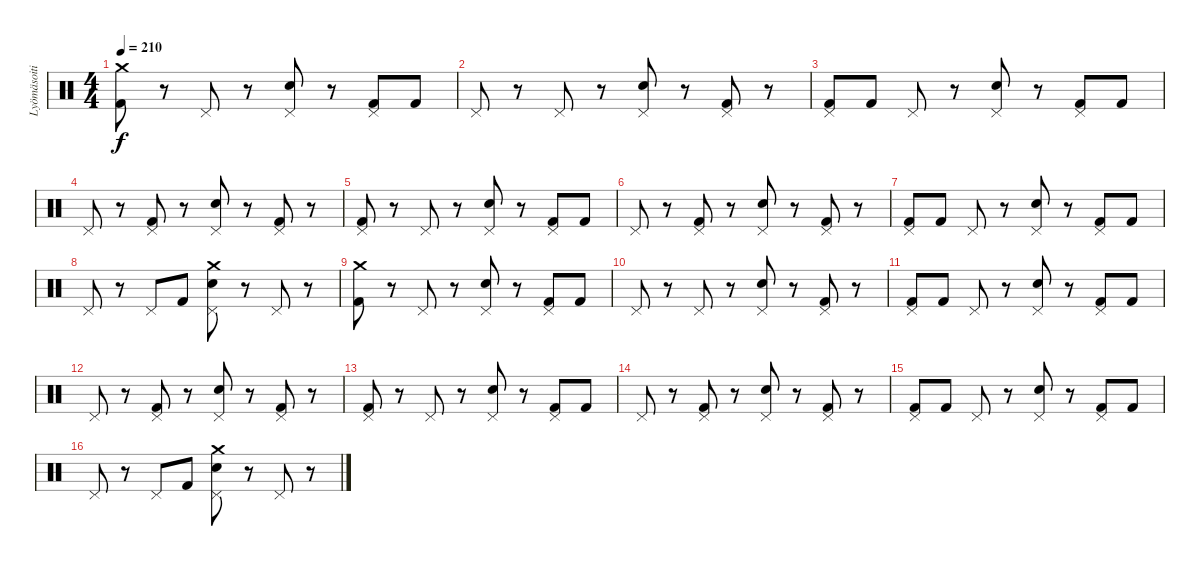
\track ("Lyömäsoitin" "Lyömäsoiti") {instrument percussion}
\staff {score}
\articulation defaults
\ts (4 4)
\tempo 210
\clef neutral
\ks c
("Crash medium (hit)" "Kick (hit) 2").8{dy f} r.8 "Pedal Hi-Hat (hit)".8 r.8 ("Pedal Hi-Hat (hit)" "Electric Snare (hit)").8 r.8 ("Pedal Hi-Hat (hit)" "Kick (hit) 2").8 "Kick (hit) 2".8 |
"Pedal Hi-Hat (hit)".8 r.8 "Pedal Hi-Hat (hit)".8 r.8 ("Pedal Hi-Hat (hit)" "Electric Snare (hit)").8 r.8 ("Pedal Hi-Hat (hit)" "Kick (hit) 2").8 r.8 |
("Pedal Hi-Hat (hit)" "Kick (hit) 2").8 "Kick (hit) 2".8 "Pedal Hi-Hat (hit)".8 r.8 ("Pedal Hi-Hat (hit)" "Electric Snare (hit)").8 r.8 ("Pedal Hi-Hat (hit)" "Kick (hit) 2").8 "Kick (hit) 2".8 |
"Pedal Hi-Hat (hit)".8 r.8 ("Pedal Hi-Hat (hit)" "Kick (hit) 2").8 r.8 ("Pedal Hi-Hat (hit)" "Electric Snare (hit)").8 r.8 ("Pedal Hi-Hat (hit)" "Kick (hit) 2").8 r.8 |
("Pedal Hi-Hat (hit)" "Kick (hit) 2").8 r.8 "Pedal Hi-Hat (hit)".8 r.8 ("Pedal Hi-Hat (hit)" "Electric Snare (hit)").8 r.8 ("Pedal Hi-Hat (hit)" "Kick (hit) 2").8 "Kick (hit) 2".8 |
"Pedal Hi-Hat (hit)".8 r.8 ("Pedal Hi-Hat (hit)" "Kick (hit) 2").8 r.8 ("Pedal Hi-Hat (hit)" "Electric Snare (hit)").8 r.8 ("Pedal Hi-Hat (hit)" "Kick (hit) 2").8 r.8 |
("Pedal Hi-Hat (hit)" "Kick (hit) 2").8 "Kick (hit) 2".8 "Pedal Hi-Hat (hit)".8 r.8 ("Pedal Hi-Hat (hit)" "Electric Snare (hit)").8 r.8 ("Pedal Hi-Hat (hit)" "Kick (hit) 2").8 "Kick (hit) 2".8 |
"Pedal Hi-Hat (hit)".8 r.8 "Pedal Hi-Hat (hit)".8 "Kick (hit) 2".8 ("Crash medium (hit)" "Pedal Hi-Hat (hit)" "Electric Snare (hit)").8 r.8 "Pedal Hi-Hat (hit)".8 r.8 |
("Crash medium (hit)" "Kick (hit) 2").8 r.8 "Pedal Hi-Hat (hit)".8 r.8 ("Pedal Hi-Hat (hit)" "Electric Snare (hit)").8 r.8 ("Pedal Hi-Hat (hit)" "Kick (hit) 2").8 "Kick (hit) 2".8 |
"Pedal Hi-Hat (hit)".8 r.8 "Pedal Hi-Hat (hit)".8 r.8 ("Pedal Hi-Hat (hit)" "Electric Snare (hit)").8 r.8 ("Pedal Hi-Hat (hit)" "Kick (hit) 2").8 r.8 |
("Pedal Hi-Hat (hit)" "Kick (hit) 2").8 "Kick (hit) 2".8 "Pedal Hi-Hat (hit)".8 r.8 ("Pedal Hi-Hat (hit)" "Electric Snare (hit)").8 r.8 ("Pedal Hi-Hat (hit)" "Kick (hit) 2").8 "Kick (hit) 2".8 |
"Pedal Hi-Hat (hit)".8 r.8 ("Pedal Hi-Hat (hit)" "Kick (hit) 2").8 r.8 ("Pedal Hi-Hat (hit)" "Electric Snare (hit)").8 r.8 ("Pedal Hi-Hat (hit)" "Kick (hit) 2").8 r.8 |
("Pedal Hi-Hat (hit)" "Kick (hit) 2").8 r.8 "Pedal Hi-Hat (hit)".8 r.8 ("Pedal Hi-Hat (hit)" "Electric Snare (hit)").8 r.8 ("Pedal Hi-Hat (hit)" "Kick (hit) 2").8 "Kick (hit) 2".8 |
"Pedal Hi-Hat (hit)".8 r.8 ("Pedal Hi-Hat (hit)" "Kick (hit) 2").8 r.8 ("Pedal Hi-Hat (hit)" "Electric Snare (hit)").8 r.8 ("Pedal Hi-Hat (hit)" "Kick (hit) 2").8 r.8 |
("Pedal Hi-Hat (hit)" "Kick (hit) 2").8 "Kick (hit) 2".8 "Pedal Hi-Hat (hit)".8 r.8 ("Pedal Hi-Hat (hit)" "Electric Snare (hit)").8 r.8 ("Pedal Hi-Hat (hit)" "Kick (hit) 2").8 "Kick (hit) 2".8 |
"Pedal Hi-Hat (hit)".8 r.8 "Pedal Hi-Hat (hit)".8 "Kick (hit) 2".8 ("Crash medium (hit)" "Pedal Hi-Hat (hit)" "Electric Snare (hit)").8 r.8 "Pedal Hi-Hat (hit)".8 r.8
